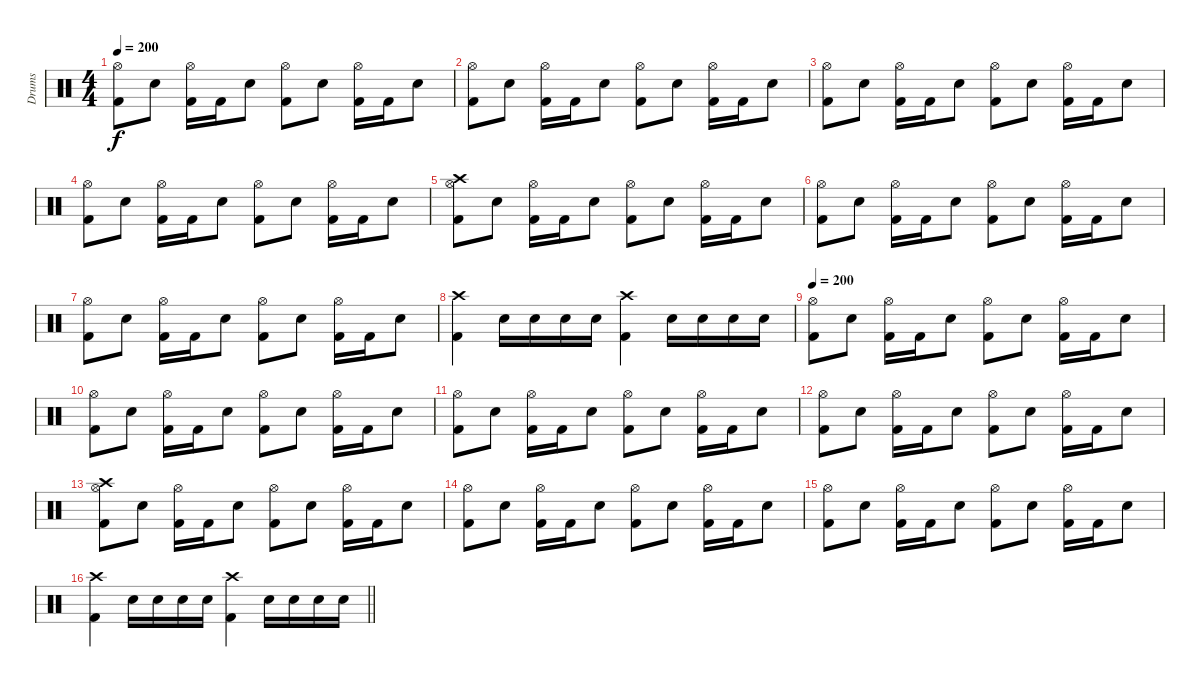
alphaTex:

\track ("Drums" "Drums") {instrument percussion}
\staff {score}
\articulation defaults
\ts (4 4)
\tempo 200
\clef neutral
\ks c
("Hi-Hat (open)" "Kick (hit) 2").8{dy f} "Snare (hit) 2".8 ("Hi-Hat (open)" "Kick (hit) 2").16 "Kick (hit) 2".16 "Snare (hit) 2".8 ("Hi-Hat (open)" "Kick (hit) 2").8 "Snare (hit) 2".8 ("Hi-Hat (open)" "Kick (hit) 2").16 "Kick (hit) 2".16 "Snare (hit) 2".8 |
("Hi-Hat (open)" "Kick (hit) 2").8 "Snare (hit) 2".8 ("Hi-Hat (open)" "Kick (hit) 2").16 "Kick (hit) 2".16 "Snare (hit) 2".8 ("Hi-Hat (open)" "Kick (hit) 2").8 "Snare (hit) 2".8 ("Hi-Hat (open)" "Kick (hit) 2").16 "Kick (hit) 2".16 "Snare (hit) 2".8 |
("Hi-Hat (open)" "Kick (hit) 2").8 "Snare (hit) 2".8 ("Hi-Hat (open)" "Kick (hit) 2").16 "Kick (hit) 2".16 "Snare (hit) 2".8 ("Hi-Hat (open)" "Kick (hit) 2").8 "Snare (hit) 2".8 ("Hi-Hat (open)" "Kick (hit) 2").16 "Kick (hit) 2".16 "Snare (hit) 2".8 |
("Hi-Hat (open)" "Kick (hit) 2").8 "Snare (hit) 2".8 ("Hi-Hat (open)" "Kick (hit) 2").16 "Kick (hit) 2".16 "Snare (hit) 2".8 ("Hi-Hat (open)" "Kick (hit) 2").8 "Snare (hit) 2".8 ("Hi-Hat (open)" "Kick (hit) 2").16 "Kick (hit) 2".16 "Snare (hit) 2".8 |
("Crash high (hit)" "Hi-Hat (open)" "Kick (hit) 2").8 "Snare (hit) 2".8 ("Hi-Hat (open)" "Kick (hit) 2").16 "Kick (hit) 2".16 "Snare (hit) 2".8 ("Hi-Hat (open)" "Kick (hit) 2").8 "Snare (hit) 2".8 ("Hi-Hat (open)" "Kick (hit) 2").16 "Kick (hit) 2".16 "Snare (hit) 2".8 |
("Hi-Hat (open)" "Kick (hit) 2").8 "Snare (hit) 2".8 ("Hi-Hat (open)" "Kick (hit) 2").16 "Kick (hit) 2".16 "Snare (hit) 2".8 ("Hi-Hat (open)" "Kick (hit) 2").8 "Snare (hit) 2".8 ("Hi-Hat (open)" "Kick (hit) 2").16 "Kick (hit) 2".16 "Snare (hit) 2".8 |
("Hi-Hat (open)" "Kick (hit) 2").8 "Snare (hit) 2".8 ("Hi-Hat (open)" "Kick (hit) 2").16 "Kick (hit) 2".16 "Snare (hit) 2".8 ("Hi-Hat (open)" "Kick (hit) 2").8 "Snare (hit) 2".8 ("Hi-Hat (open)" "Kick (hit) 2").16 "Kick (hit) 2".16 "Snare (hit) 2".8 |
("Crash high (hit)" "Kick (hit) 2").4 "Snare (hit) 2".16 "Snare (hit) 2".16 "Snare (hit) 2".16 "Snare (hit) 2".16 ("Crash high (hit)" "Kick (hit) 2").4 "Snare (hit) 2".16 "Snare (hit) 2".16 "Snare (hit) 2".16 "Snare (hit) 2".16 |
\tempo 200
("Hi-Hat (open)" "Kick (hit) 2").8 "Snare (hit) 2".8 ("Hi-Hat (open)" "Kick (hit) 2").16 "Kick (hit) 2".16 "Snare (hit) 2".8 ("Hi-Hat (open)" "Kick (hit) 2").8 "Snare (hit) 2".8 ("Hi-Hat (open)" "Kick (hit) 2").16 "Kick (hit) 2".16 "Snare (hit) 2".8 |
("Hi-Hat (open)" "Kick (hit) 2").8 "Snare (hit) 2".8 ("Hi-Hat (open)" "Kick (hit) 2").16 "Kick (hit) 2".16 "Snare (hit) 2".8 ("Hi-Hat (open)" "Kick (hit) 2").8 "Snare (hit) 2".8 ("Hi-Hat (open)" "Kick (hit) 2").16 "Kick (hit) 2".16 "Snare (hit) 2".8 |
("Hi-Hat (open)" "Kick (hit) 2").8 "Snare (hit) 2".8 ("Hi-Hat (open)" "Kick (hit) 2").16 "Kick (hit) 2".16 "Snare (hit) 2".8 ("Hi-Hat (open)" "Kick (hit) 2").8 "Snare (hit) 2".8 ("Hi-Hat (open)" "Kick (hit) 2").16 "Kick (hit) 2".16 "Snare (hit) 2".8 |
("Hi-Hat (open)" "Kick (hit) 2").8 "Snare (hit) 2".8 ("Hi-Hat (open)" "Kick (hit) 2").16 "Kick (hit) 2".16 "Snare (hit) 2".8 ("Hi-Hat (open)" "Kick (hit) 2").8 "Snare (hit) 2".8 ("Hi-Hat (open)" "Kick (hit) 2").16 "Kick (hit) 2".16 "Snare (hit) 2".8 |
("Crash high (hit)" "Hi-Hat (open)" "Kick (hit) 2").8 "Snare (hit) 2".8 ("Hi-Hat (open)" "Kick (hit) 2").16 "Kick (hit) 2".16 "Snare (hit) 2".8 ("Hi-Hat (open)" "Kick (hit) 2").8 "Snare (hit) 2".8 ("Hi-Hat (open)" "Kick (hit) 2").16 "Kick (hit) 2".16 "Snare (hit) 2".8 |
("Hi-Hat (open)" "Kick (hit) 2").8 "Snare (hit) 2".8 ("Hi-Hat (open)" "Kick (hit) 2").16 "Kick (hit) 2".16 "Snare (hit) 2".8 ("Hi-Hat (open)" "Kick (hit) 2").8 "Snare (hit) 2".8 ("Hi-Hat (open)" "Kick (hit) 2").16 "Kick (hit) 2".16 "Snare (hit) 2".8 |
("Hi-Hat (open)" "Kick (hit) 2").8 "Snare (hit) 2".8 ("Hi-Hat (open)" "Kick (hit) 2").16 "Kick (hit) 2".16 "Snare (hit) 2".8 ("Hi-Hat (open)" "Kick (hit) 2").8 "Snare (hit) 2".8 ("Hi-Hat (open)" "Kick (hit) 2").16 "Kick (hit) 2".16 "Snare (hit) 2".8 |
\barLineRight lightlight
("Crash high (hit)" "Kick (hit) 2").4 "Snare (hit) 2".16 "Snare (hit) 2".16 "Snare (hit) 2".16 "Snare (hit) 2".16 ("Crash high (hit)" "Kick (hit) 2").4 "Snare (hit) 2".16 "Snare (hit) 2".16 "Snare (hit) 2".16 "Snare (hit) 2".16
